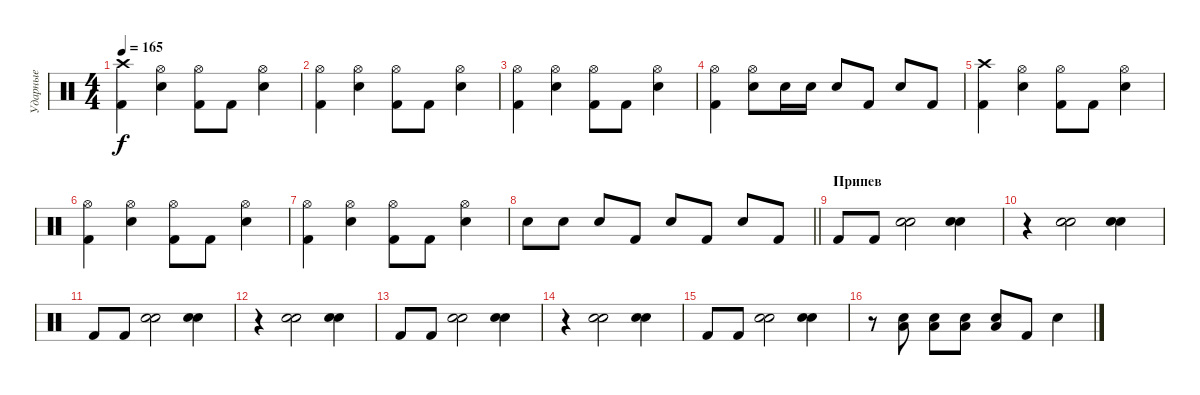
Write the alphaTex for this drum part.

\track ("Ударные" "Ударные") {instrument percussion}
\staff {score}
\articulation defaults
\ts (4 4)
\tempo 165
\clef neutral
\ks c
("Kick (hit) 2" "Crash high (hit)").4{dy f} ("Electric Snare (hit)" "Hi-Hat (open)").4 ("Kick (hit) 2" "Hi-Hat (open)").8 "Kick (hit) 2".8 ("Electric Snare (hit)" "Hi-Hat (open)").4 |
("Kick (hit) 2" "Hi-Hat (open)").4 ("Electric Snare (hit)" "Hi-Hat (open)").4 ("Kick (hit) 2" "Hi-Hat (open)").8 "Kick (hit) 2".8 ("Electric Snare (hit)" "Hi-Hat (open)").4 |
("Kick (hit) 2" "Hi-Hat (open)").4 ("Electric Snare (hit)" "Hi-Hat (open)").4 ("Kick (hit) 2" "Hi-Hat (open)").8 "Kick (hit) 2".8 ("Electric Snare (hit)" "Hi-Hat (open)").4 |
("Kick (hit) 2" "Hi-Hat (open)").4 ("Electric Snare (hit)" "Hi-Hat (open)").8 "Electric Snare (hit)".16 "Electric Snare (hit)".16 "Electric Snare (hit)".8 "Kick (hit) 2".8 "Electric Snare (hit)".8 "Kick (hit) 2".8 |
("Kick (hit) 2" "Crash high (hit)").4 ("Electric Snare (hit)" "Hi-Hat (open)").4 ("Kick (hit) 2" "Hi-Hat (open)").8 "Kick (hit) 2".8 ("Electric Snare (hit)" "Hi-Hat (open)").4 |
("Kick (hit) 2" "Hi-Hat (open)").4 ("Electric Snare (hit)" "Hi-Hat (open)").4 ("Kick (hit) 2" "Hi-Hat (open)").8 "Kick (hit) 2".8 ("Electric Snare (hit)" "Hi-Hat (open)").4 |
("Kick (hit) 2" "Hi-Hat (open)").4 ("Electric Snare (hit)" "Hi-Hat (open)").4 ("Kick (hit) 2" "Hi-Hat (open)").8 "Kick (hit) 2".8 ("Electric Snare (hit)" "Hi-Hat (open)").4 |
\barLineRight lightlight "Electric Snare (hit)".8 "Electric Snare (hit)".8 "Electric Snare (hit)".8 "Kick (hit) 2".8 "Electric Snare (hit)".8 "Kick (hit) 2".8 "Electric Snare (hit)".8 "Kick (hit) 2".8
|
\section ("" "Припев")
"Kick (hit) 2".8 "Kick (hit) 2".8 ("Electric Snare (hit)" "Electric Snare (hit)").2{bu 60} ("Electric Snare (hit)" "Electric Snare (hit)").4{bu 60} |
r.4 ("Electric Snare (hit)" "Electric Snare (hit)").2{bu 60} ("Electric Snare (hit)" "Electric Snare (hit)").4{bu 60} |
"Kick (hit) 2".8 "Kick (hit) 2".8 ("Electric Snare (hit)" "Electric Snare (hit)").2{bu 60} ("Electric Snare (hit)" "Electric Snare (hit)").4{bu 60} |
r.4 ("Electric Snare (hit)" "Electric Snare (hit)").2{bu 60} ("Electric Snare (hit)" "Electric Snare (hit)").4{bu 60} |
"Kick (hit) 2".8 "Kick (hit) 2".8 ("Electric Snare (hit)" "Electric Snare (hit)").2{bu 60} ("Electric Snare (hit)" "Electric Snare (hit)").4{bu 60} |
r.4 ("Electric Snare (hit)" "Electric Snare (hit)").2{bu 60} ("Electric Snare (hit)" "Electric Snare (hit)").4{bu 60} |
"Kick (hit) 2".8 "Kick (hit) 2".8 ("Electric Snare (hit)" "Electric Snare (hit)").2{bu 60} ("Electric Snare (hit)" "Electric Snare (hit)").4{bu 60} |
r.8 ("Electric Snare (hit)" "Low Tom (hit)").8 ("Electric Snare (hit)" "Low Tom (hit)").8 ("Electric Snare (hit)" "Low Tom (hit)").8 ("Electric Snare (hit)" "Low Tom (hit)").8 "Kick (hit) 2".8 "Electric Snare (hit)".4
